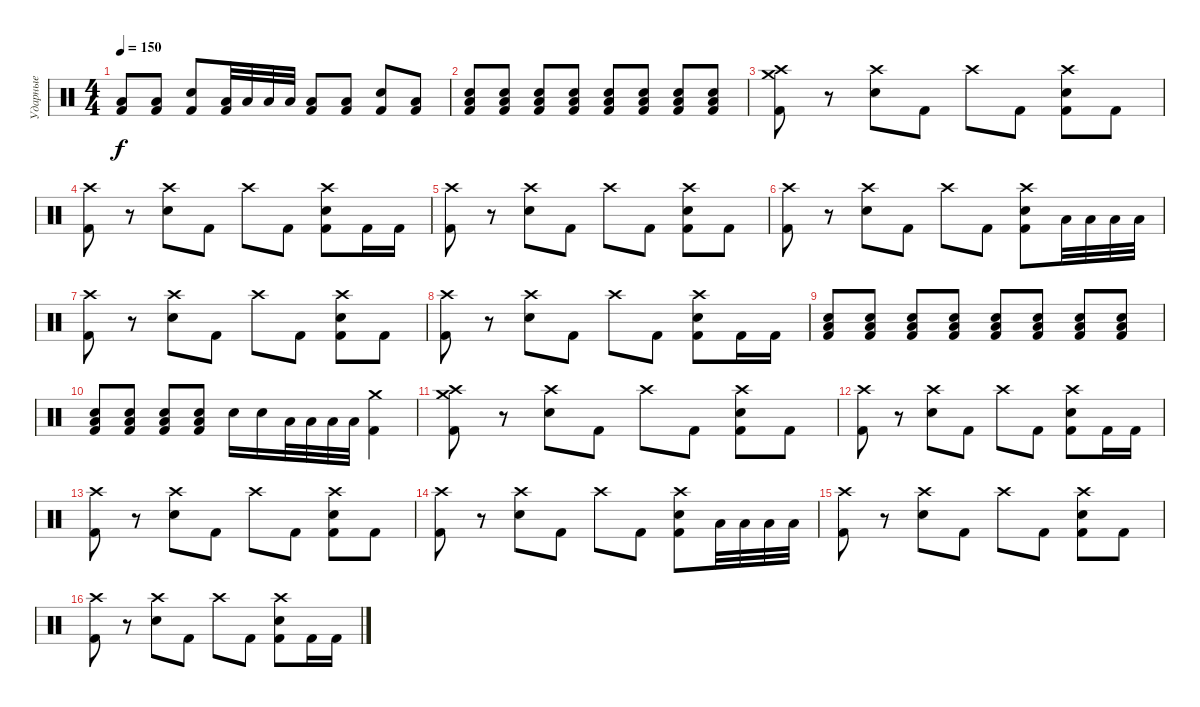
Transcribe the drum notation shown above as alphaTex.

\track ("Ударные" "Ударные") {instrument percussion}
\staff {score}
\articulation defaults
\ts (4 4)
\tempo 150
\clef neutral
\ks c
("Low Tom (hit)" "Kick (hit) 2").8{dy f} ("Low Tom (hit)" "Kick (hit) 2").8 ("Electric Snare (hit)" "Kick (hit) 2").8 ("Low Tom (hit)" "Kick (hit) 2").32 "Low Tom (hit)".32 "Low Floor Tom (hit)".32 "Low Floor Tom (hit)".32 ("Low Tom (hit)" "Kick (hit) 2").8 ("Low Tom (hit)" "Kick (hit) 2").8 ("Electric Snare (hit)" "Kick (hit) 2").8 ("Low Floor Tom (hit)" "Kick (hit) 2").8 |
("Low Floor Tom (hit)" "Electric Snare (hit)" "Kick (hit) 2").8 ("Low Floor Tom (hit)" "Electric Snare (hit)" "Kick (hit) 2").8 ("Low Floor Tom (hit)" "Electric Snare (hit)" "Kick (hit) 2").8 ("Low Floor Tom (hit)" "Electric Snare (hit)" "Kick (hit) 2").8 ("Low Floor Tom (hit)" "Electric Snare (hit)" "Kick (hit) 2").8 ("Low Floor Tom (hit)" "Electric Snare (hit)" "Kick (hit) 2").8 ("Low Floor Tom (hit)" "Electric Snare (hit)" "Kick (hit) 2").8 ("Low Floor Tom (hit)" "Electric Snare (hit)" "Kick (hit) 2").8 |
("Crash medium (hit)" "Crash high (hit)" "Kick (hit) 2").8 r.8 ("Crash high (hit)" "Electric Snare (hit)").8 "Kick (hit) 2".8 "Crash high (hit)".8 "Kick (hit) 2".8 ("Crash high (hit)" "Electric Snare (hit)" "Kick (hit) 2").8 "Kick (hit) 2".8 |
("Crash high (hit)" "Kick (hit) 2").8 r.8 ("Crash high (hit)" "Electric Snare (hit)").8 "Kick (hit) 2".8 "Crash high (hit)".8 "Kick (hit) 2".8 ("Crash high (hit)" "Electric Snare (hit)" "Kick (hit) 2").8 "Kick (hit) 2".16 "Kick (hit) 2".16 |
("Crash high (hit)" "Kick (hit) 2").8 r.8 ("Crash high (hit)" "Electric Snare (hit)").8 "Kick (hit) 2".8 "Crash high (hit)".8 "Kick (hit) 2".8 ("Crash high (hit)" "Electric Snare (hit)" "Kick (hit) 2").8 "Kick (hit) 2".8 |
("Crash high (hit)" "Kick (hit) 2").8 r.8 ("Crash high (hit)" "Electric Snare (hit)").8 "Kick (hit) 2".8 "Crash high (hit)".8 "Kick (hit) 2".8 ("Crash high (hit)" "Electric Snare (hit)" "Kick (hit) 2").8 "Low Tom (hit)".32 "Low Tom (hit)".32 "Low Floor Tom (hit)".32 "Low Floor Tom (hit)".32 |
("Crash high (hit)" "Kick (hit) 2").8 r.8 ("Crash high (hit)" "Electric Snare (hit)").8 "Kick (hit) 2".8 "Crash high (hit)".8 "Kick (hit) 2".8 ("Crash high (hit)" "Electric Snare (hit)" "Kick (hit) 2").8 "Kick (hit) 2".8 |
("Crash high (hit)" "Kick (hit) 2").8 r.8 ("Crash high (hit)" "Electric Snare (hit)").8 "Kick (hit) 2".8 "Crash high (hit)".8 "Kick (hit) 2".8 ("Crash high (hit)" "Electric Snare (hit)" "Kick (hit) 2").8 "Kick (hit) 2".16 "Kick (hit) 2".16 |
("Low Floor Tom (hit)" "Electric Snare (hit)" "Kick (hit) 2").8 ("Low Floor Tom (hit)" "Electric Snare (hit)" "Kick (hit) 2").8 ("Low Floor Tom (hit)" "Electric Snare (hit)" "Kick (hit) 2").8 ("Low Floor Tom (hit)" "Electric Snare (hit)" "Kick (hit) 2").8 ("Low Floor Tom (hit)" "Electric Snare (hit)" "Kick (hit) 2").8 ("Low Floor Tom (hit)" "Electric Snare (hit)" "Kick (hit) 2").8 ("Low Floor Tom (hit)" "Electric Snare (hit)" "Kick (hit) 2").8 ("Low Floor Tom (hit)" "Electric Snare (hit)" "Kick (hit) 2").8 |
("Low Floor Tom (hit)" "Electric Snare (hit)" "Kick (hit) 2").8 ("Low Floor Tom (hit)" "Electric Snare (hit)" "Kick (hit) 2").8 ("Low Floor Tom (hit)" "Electric Snare (hit)" "Kick (hit) 2").8 ("Low Floor Tom (hit)" "Electric Snare (hit)" "Kick (hit) 2").8 "Electric Snare (hit)".16 "Electric Snare (hit)".16 "Low Tom (hit)".32 "Low Tom (hit)".32 "Low Floor Tom (hit)".32 "Low Floor Tom (hit)".32 ("Crash medium (hit)" "Kick (hit) 2").4 |
("Crash medium (hit)" "Crash high (hit)" "Kick (hit) 2").8 r.8 ("Crash high (hit)" "Electric Snare (hit)").8 "Kick (hit) 2".8 "Crash high (hit)".8 "Kick (hit) 2".8 ("Crash high (hit)" "Electric Snare (hit)" "Kick (hit) 2").8 "Kick (hit) 2".8 |
("Crash high (hit)" "Kick (hit) 2").8 r.8 ("Crash high (hit)" "Electric Snare (hit)").8 "Kick (hit) 2".8 "Crash high (hit)".8 "Kick (hit) 2".8 ("Crash high (hit)" "Electric Snare (hit)" "Kick (hit) 2").8 "Kick (hit) 2".16 "Kick (hit) 2".16 |
("Crash high (hit)" "Kick (hit) 2").8 r.8 ("Crash high (hit)" "Electric Snare (hit)").8 "Kick (hit) 2".8 "Crash high (hit)".8 "Kick (hit) 2".8 ("Crash high (hit)" "Electric Snare (hit)" "Kick (hit) 2").8 "Kick (hit) 2".8 |
("Crash high (hit)" "Kick (hit) 2").8 r.8 ("Crash high (hit)" "Electric Snare (hit)").8 "Kick (hit) 2".8 "Crash high (hit)".8 "Kick (hit) 2".8 ("Crash high (hit)" "Electric Snare (hit)" "Kick (hit) 2").8 "Low Tom (hit)".32 "Low Tom (hit)".32 "Low Floor Tom (hit)".32 "Low Floor Tom (hit)".32 |
("Crash high (hit)" "Kick (hit) 2").8 r.8 ("Crash high (hit)" "Electric Snare (hit)").8 "Kick (hit) 2".8 "Crash high (hit)".8 "Kick (hit) 2".8 ("Crash high (hit)" "Electric Snare (hit)" "Kick (hit) 2").8 "Kick (hit) 2".8 |
("Crash high (hit)" "Kick (hit) 2").8 r.8 ("Crash high (hit)" "Electric Snare (hit)").8 "Kick (hit) 2".8 "Crash high (hit)".8 "Kick (hit) 2".8 ("Crash high (hit)" "Electric Snare (hit)" "Kick (hit) 2").8 "Kick (hit) 2".16 "Kick (hit) 2".16
